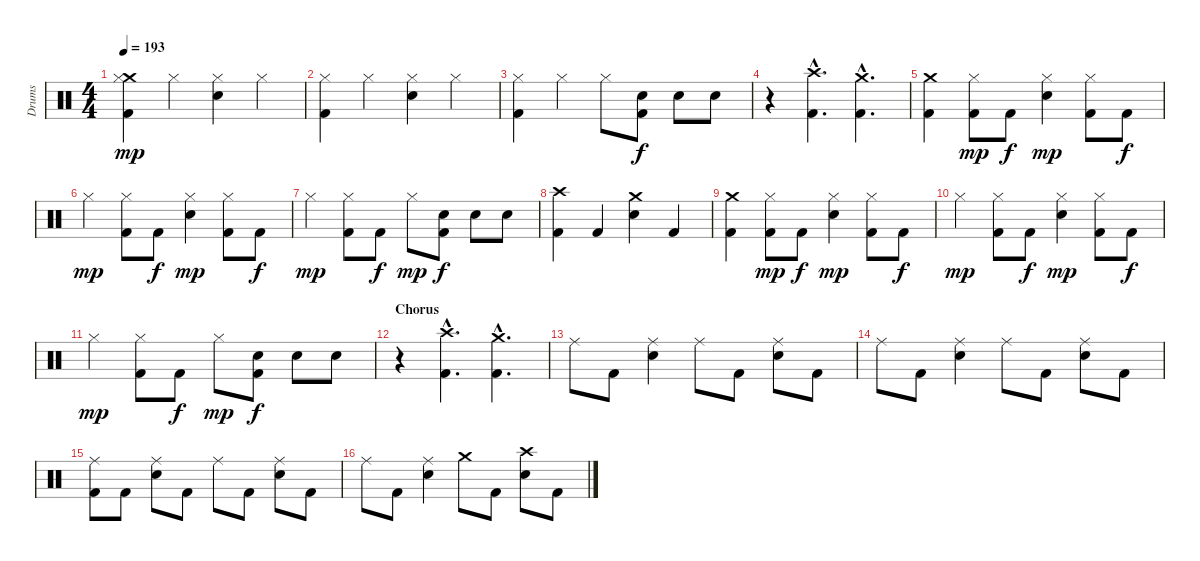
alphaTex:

\track ("Drums" "Drums") {instrument percussion}
\staff {score}
\articulation defaults
\ts (4 4)
\tempo 193
\clef neutral
\ks c
("Crash medium (hit)" "Hi-Hat (closed)" "Kick (hit) 2").4{dy mp} "Hi-Hat (closed)".4 ("Hi-Hat (closed)" "Snare (hit) 2").4 "Hi-Hat (closed)".4 |
("Hi-Hat (closed)" "Kick (hit) 2").4 "Hi-Hat (closed)".4 ("Hi-Hat (closed)" "Snare (hit) 2").4 "Hi-Hat (closed)".4 |
("Hi-Hat (closed)" "Kick (hit) 2").4 "Hi-Hat (closed)".4 "Hi-Hat (closed)".8 ("Snare (hit) 2" "Kick (hit) 2").8{dy f} "Snare (hit) 2".8 "Snare (hit) 2".8 |
r.4 ("Crash high (hit)"{hac} "Kick (hit) 2"{hac}).4{d} ("Crash medium (hit)"{hac} "Kick (hit) 2"{hac}).4{d} |
("Crash medium (hit)" "Kick (hit) 2").4 ("Hi-Hat (closed)" "Kick (hit) 2").8{dy mp} "Kick (hit) 2".8{dy f} ("Hi-Hat (closed)" "Snare (hit) 2").4{dy mp} ("Hi-Hat (closed)" "Kick (hit) 2").8 "Kick (hit) 2".8{dy f} |
"Hi-Hat (closed)".4{dy mp} ("Hi-Hat (closed)" "Kick (hit) 2").8 "Kick (hit) 2".8{dy f} ("Hi-Hat (closed)" "Snare (hit) 2").4{dy mp} ("Hi-Hat (closed)" "Kick (hit) 2").8 "Kick (hit) 2".8{dy f} |
"Hi-Hat (closed)".4{dy mp} ("Hi-Hat (closed)" "Kick (hit) 2").8 "Kick (hit) 2".8{dy f} "Hi-Hat (closed)".8{dy mp} ("Snare (hit) 2" "Kick (hit) 2").8{dy f} "Snare (hit) 2".8 "Snare (hit) 2".8 |
("Crash high (hit)" "Kick (hit) 2").4 "Kick (hit) 2".4 ("Crash medium (hit)" "Snare (hit) 2").4 "Kick (hit) 2".4 |
("Crash medium (hit)" "Kick (hit) 2").4 ("Hi-Hat (closed)" "Kick (hit) 2").8{dy mp} "Kick (hit) 2".8{dy f} ("Hi-Hat (closed)" "Snare (hit) 2").4{dy mp} ("Hi-Hat (closed)" "Kick (hit) 2").8 "Kick (hit) 2".8{dy f} |
"Hi-Hat (closed)".4{dy mp} ("Hi-Hat (closed)" "Kick (hit) 2").8 "Kick (hit) 2".8{dy f} ("Hi-Hat (closed)" "Snare (hit) 2").4{dy mp} ("Hi-Hat (closed)" "Kick (hit) 2").8 "Kick (hit) 2".8{dy f} |
"Hi-Hat (closed)".4{dy mp} ("Hi-Hat (closed)" "Kick (hit) 2").8 "Kick (hit) 2".8{dy f} "Hi-Hat (closed)".8{dy mp} ("Snare (hit) 2" "Kick (hit) 2").8{dy f} "Snare (hit) 2".8 "Snare (hit) 2".8 |
\section ("" "Chorus")
r.4 ("Crash high (hit)"{hac} "Kick (hit) 2"{hac}).4{d} ("Crash medium (hit)"{hac} "Kick (hit) 2"{hac}).4{d} |
"Ride (middle)".8 "Kick (hit) 2".8 ("Ride (middle)" "Snare (hit) 2").4 "Ride (middle)".8 "Kick (hit) 2".8 ("Ride (middle)" "Snare (hit) 2").8 "Kick (hit) 2".8 |
"Ride (middle)".8 "Kick (hit) 2".8 ("Ride (middle)" "Snare (hit) 2").4 "Ride (middle)".8 "Kick (hit) 2".8 ("Ride (middle)" "Snare (hit) 2").8 "Kick (hit) 2".8 |
("Ride (middle)" "Kick (hit) 2").8 "Kick (hit) 2".8 ("Ride (middle)" "Snare (hit) 2").8 "Kick (hit) 2".8 "Ride (middle)".8 "Kick (hit) 2".8 ("Ride (middle)" "Snare (hit) 2").8 "Kick (hit) 2".8 |
"Ride (middle)".8 "Kick (hit) 2".8 ("Ride (middle)" "Snare (hit) 2").4 "Crash medium (hit)".8 "Kick (hit) 2".8 ("Crash high (hit)" "Snare (hit) 2").8 "Kick (hit) 2".8
